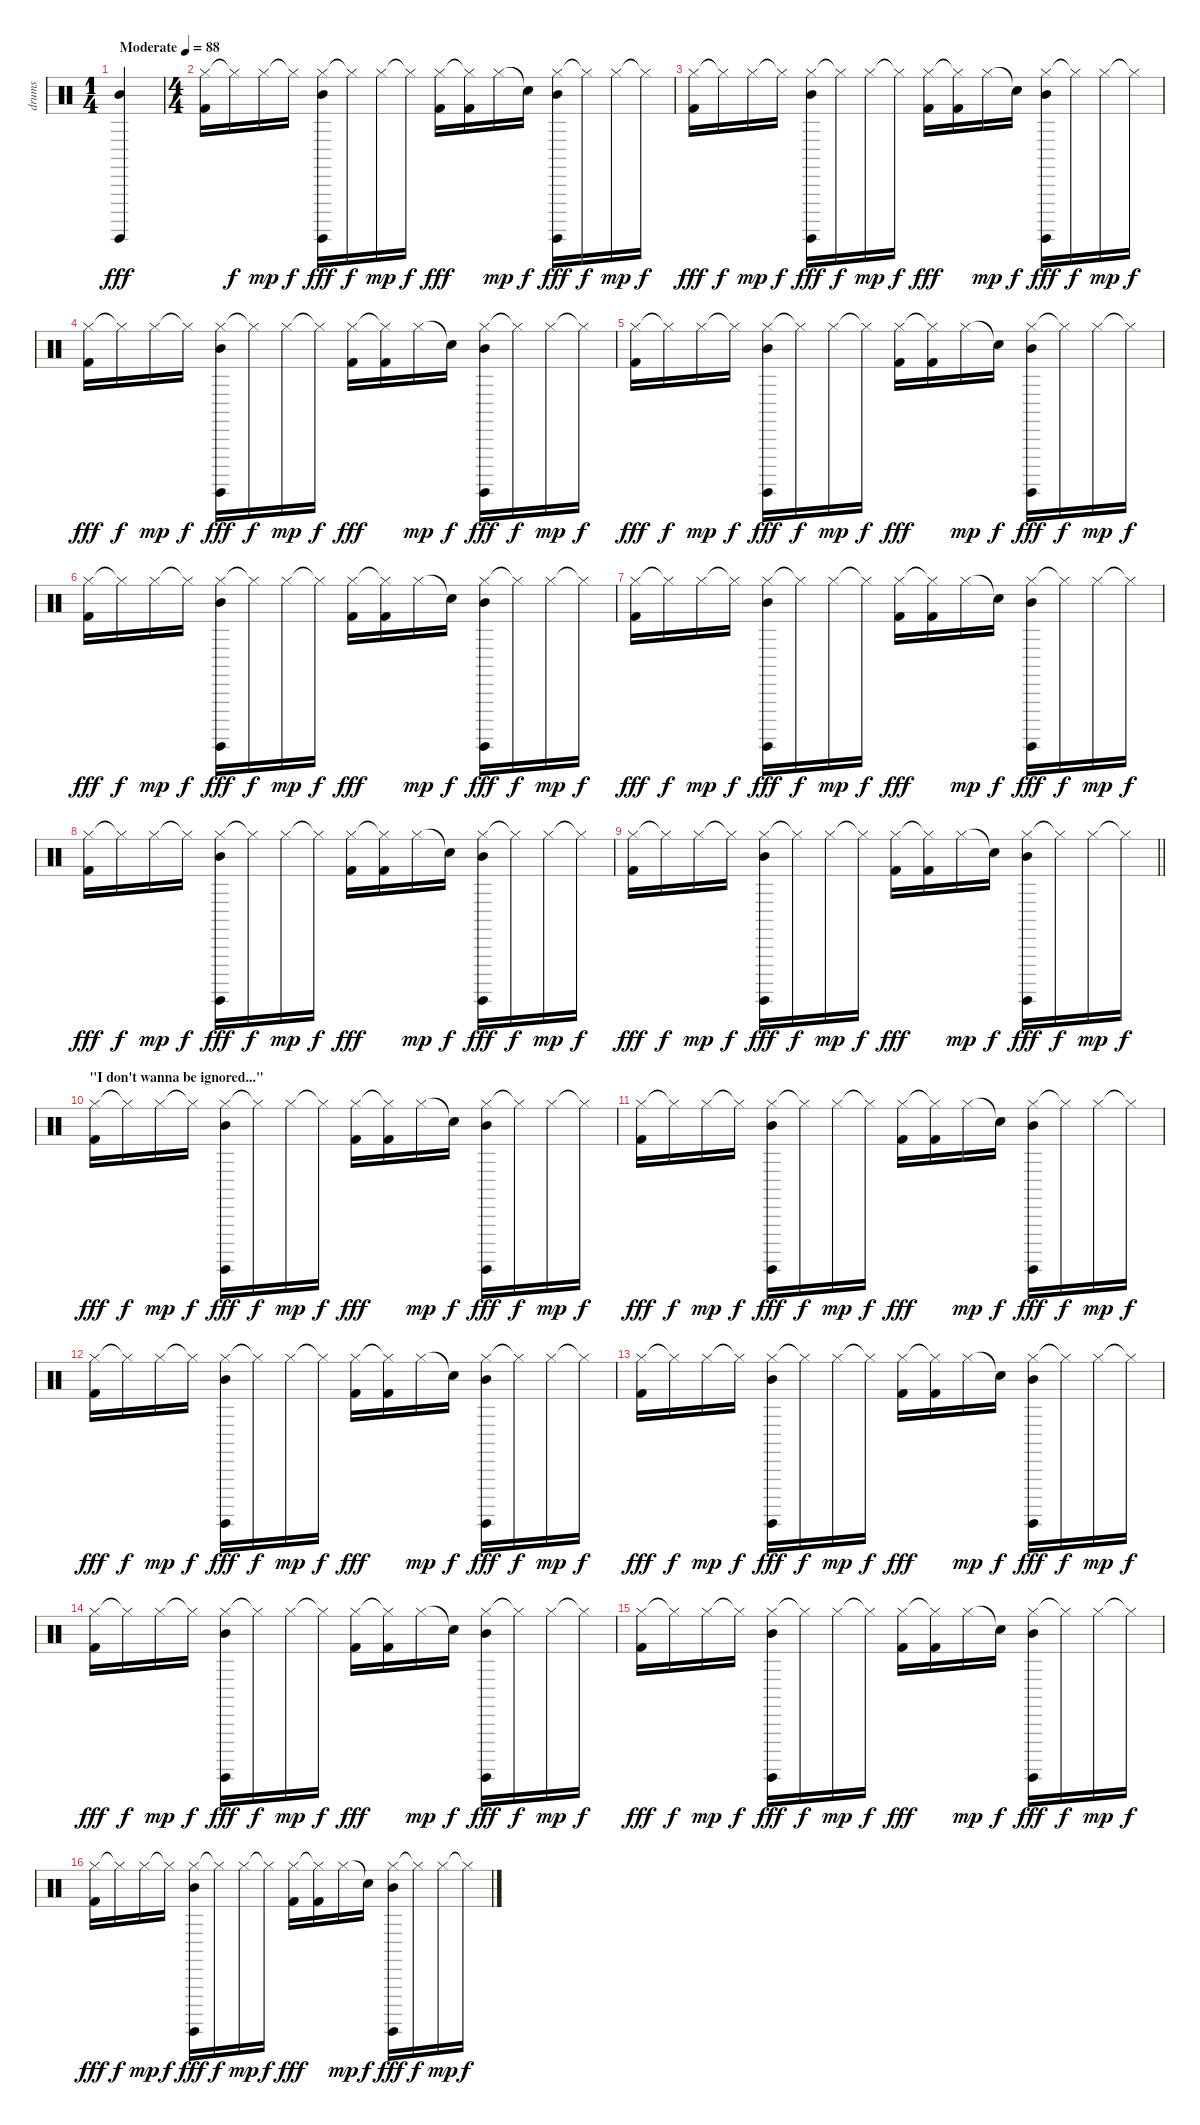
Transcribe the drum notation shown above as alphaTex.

\track ("drums" "drums") {instrument percussion}
\staff {score}
\articulation defaults
\ts (1 4)
\tempo (88 "Moderate")
\clef neutral
\ks c
("Mid Tom (hit)" "Surdo (hit)").4{dy fff} |
\ts (4 4)
("Hi-Hat (closed)" "Kick (hit) 2").16 "Hi-Hat (closed)"{t}.16{dy f} "Hi-Hat (closed)".16{dy mp} "Hi-Hat (closed)"{t}.16{dy f} ("Hi-Hat (closed)" "Mid Tom (hit)" "Surdo (hit)").16{dy fff} "Hi-Hat (closed)"{t}.16{dy f} "Hi-Hat (closed)".16{dy mp} "Hi-Hat (closed)"{t}.16{dy f} ("Hi-Hat (closed)" "Kick (hit) 2").16{dy fff} ("Hi-Hat (closed)"{t} "Kick (hit) 2").16 "Hi-Hat (closed)".16{dy mp} "Snare (hit)"{t}.16{dy f} ("Hi-Hat (closed)" "Mid Tom (hit)" "Surdo (hit)").16{dy fff} "Hi-Hat (closed)"{t}.16{dy f} "Hi-Hat (closed)".16{dy mp} "Hi-Hat (closed)"{t}.16{dy f} |
("Hi-Hat (closed)" "Kick (hit) 2").16{dy fff} "Hi-Hat (closed)"{t}.16{dy f} "Hi-Hat (closed)".16{dy mp} "Hi-Hat (closed)"{t}.16{dy f} ("Hi-Hat (closed)" "Mid Tom (hit)" "Surdo (hit)").16{dy fff} "Hi-Hat (closed)"{t}.16{dy f} "Hi-Hat (closed)".16{dy mp} "Hi-Hat (closed)"{t}.16{dy f} ("Hi-Hat (closed)" "Kick (hit) 2").16{dy fff} ("Hi-Hat (closed)"{t} "Kick (hit) 2").16 "Hi-Hat (closed)".16{dy mp} "Snare (hit)"{t}.16{dy f} ("Hi-Hat (closed)" "Mid Tom (hit)" "Surdo (hit)").16{dy fff} "Hi-Hat (closed)"{t}.16{dy f} "Hi-Hat (closed)".16{dy mp} "Hi-Hat (closed)"{t}.16{dy f} |
("Hi-Hat (closed)" "Kick (hit) 2").16{dy fff} "Hi-Hat (closed)"{t}.16{dy f} "Hi-Hat (closed)".16{dy mp} "Hi-Hat (closed)"{t}.16{dy f} ("Hi-Hat (closed)" "Mid Tom (hit)" "Surdo (hit)").16{dy fff} "Hi-Hat (closed)"{t}.16{dy f} "Hi-Hat (closed)".16{dy mp} "Hi-Hat (closed)"{t}.16{dy f} ("Hi-Hat (closed)" "Kick (hit) 2").16{dy fff} ("Hi-Hat (closed)"{t} "Kick (hit) 2").16 "Hi-Hat (closed)".16{dy mp} "Snare (hit)"{t}.16{dy f} ("Hi-Hat (closed)" "Mid Tom (hit)" "Surdo (hit)").16{dy fff} "Hi-Hat (closed)"{t}.16{dy f} "Hi-Hat (closed)".16{dy mp} "Hi-Hat (closed)"{t}.16{dy f} |
("Hi-Hat (closed)" "Kick (hit) 2").16{dy fff} "Hi-Hat (closed)"{t}.16{dy f} "Hi-Hat (closed)".16{dy mp} "Hi-Hat (closed)"{t}.16{dy f} ("Hi-Hat (closed)" "Mid Tom (hit)" "Surdo (hit)").16{dy fff} "Hi-Hat (closed)"{t}.16{dy f} "Hi-Hat (closed)".16{dy mp} "Hi-Hat (closed)"{t}.16{dy f} ("Hi-Hat (closed)" "Kick (hit) 2").16{dy fff} ("Hi-Hat (closed)"{t} "Kick (hit) 2").16 "Hi-Hat (closed)".16{dy mp} "Snare (hit)"{t}.16{dy f} ("Hi-Hat (closed)" "Mid Tom (hit)" "Surdo (hit)").16{dy fff} "Hi-Hat (closed)"{t}.16{dy f} "Hi-Hat (closed)".16{dy mp} "Hi-Hat (closed)"{t}.16{dy f} |
("Hi-Hat (closed)" "Kick (hit) 2").16{dy fff} "Hi-Hat (closed)"{t}.16{dy f} "Hi-Hat (closed)".16{dy mp} "Hi-Hat (closed)"{t}.16{dy f} ("Hi-Hat (closed)" "Mid Tom (hit)" "Surdo (hit)").16{dy fff} "Hi-Hat (closed)"{t}.16{dy f} "Hi-Hat (closed)".16{dy mp} "Hi-Hat (closed)"{t}.16{dy f} ("Hi-Hat (closed)" "Kick (hit) 2").16{dy fff} ("Hi-Hat (closed)"{t} "Kick (hit) 2").16 "Hi-Hat (closed)".16{dy mp} "Snare (hit)"{t}.16{dy f} ("Hi-Hat (closed)" "Mid Tom (hit)" "Surdo (hit)").16{dy fff} "Hi-Hat (closed)"{t}.16{dy f} "Hi-Hat (closed)".16{dy mp} "Hi-Hat (closed)"{t}.16{dy f} |
("Hi-Hat (closed)" "Kick (hit) 2").16{dy fff} "Hi-Hat (closed)"{t}.16{dy f} "Hi-Hat (closed)".16{dy mp} "Hi-Hat (closed)"{t}.16{dy f} ("Hi-Hat (closed)" "Mid Tom (hit)" "Surdo (hit)").16{dy fff} "Hi-Hat (closed)"{t}.16{dy f} "Hi-Hat (closed)".16{dy mp} "Hi-Hat (closed)"{t}.16{dy f} ("Hi-Hat (closed)" "Kick (hit) 2").16{dy fff} ("Hi-Hat (closed)"{t} "Kick (hit) 2").16 "Hi-Hat (closed)".16{dy mp} "Snare (hit)"{t}.16{dy f} ("Hi-Hat (closed)" "Mid Tom (hit)" "Surdo (hit)").16{dy fff} "Hi-Hat (closed)"{t}.16{dy f} "Hi-Hat (closed)".16{dy mp} "Hi-Hat (closed)"{t}.16{dy f} |
("Hi-Hat (closed)" "Kick (hit) 2").16{dy fff} "Hi-Hat (closed)"{t}.16{dy f} "Hi-Hat (closed)".16{dy mp} "Hi-Hat (closed)"{t}.16{dy f} ("Hi-Hat (closed)" "Mid Tom (hit)" "Surdo (hit)").16{dy fff} "Hi-Hat (closed)"{t}.16{dy f} "Hi-Hat (closed)".16{dy mp} "Hi-Hat (closed)"{t}.16{dy f} ("Hi-Hat (closed)" "Kick (hit) 2").16{dy fff} ("Hi-Hat (closed)"{t} "Kick (hit) 2").16 "Hi-Hat (closed)".16{dy mp} "Snare (hit)"{t}.16{dy f} ("Hi-Hat (closed)" "Mid Tom (hit)" "Surdo (hit)").16{dy fff} "Hi-Hat (closed)"{t}.16{dy f} "Hi-Hat (closed)".16{dy mp} "Hi-Hat (closed)"{t}.16{dy f} |
\barLineRight lightlight
("Hi-Hat (closed)" "Kick (hit) 2").16{dy fff} "Hi-Hat (closed)"{t}.16{dy f} "Hi-Hat (closed)".16{dy mp} "Hi-Hat (closed)"{t}.16{dy f} ("Hi-Hat (closed)" "Mid Tom (hit)" "Surdo (hit)").16{dy fff} "Hi-Hat (closed)"{t}.16{dy f} "Hi-Hat (closed)".16{dy mp} "Hi-Hat (closed)"{t}.16{dy f} ("Hi-Hat (closed)" "Kick (hit) 2").16{dy fff} ("Hi-Hat (closed)"{t} "Kick (hit) 2").16 "Hi-Hat (closed)".16{dy mp} "Snare (hit)"{t}.16{dy f} ("Hi-Hat (closed)" "Mid Tom (hit)" "Surdo (hit)").16{dy fff} "Hi-Hat (closed)"{t}.16{dy f} "Hi-Hat (closed)".16{dy mp} "Hi-Hat (closed)"{t}.16{dy f} |
\section ("" "\"I don't wanna be ignored...\"")
("Hi-Hat (closed)" "Kick (hit) 2").16{dy fff} "Hi-Hat (closed)"{t}.16{dy f} "Hi-Hat (closed)".16{dy mp} "Hi-Hat (closed)"{t}.16{dy f} ("Hi-Hat (closed)" "Mid Tom (hit)" "Surdo (hit)").16{dy fff} "Hi-Hat (closed)"{t}.16{dy f} "Hi-Hat (closed)".16{dy mp} "Hi-Hat (closed)"{t}.16{dy f} ("Hi-Hat (closed)" "Kick (hit) 2").16{dy fff} ("Hi-Hat (closed)"{t} "Kick (hit) 2").16 "Hi-Hat (closed)".16{dy mp} "Snare (hit)"{t}.16{dy f} ("Hi-Hat (closed)" "Mid Tom (hit)" "Surdo (hit)").16{dy fff} "Hi-Hat (closed)"{t}.16{dy f} "Hi-Hat (closed)".16{dy mp} "Hi-Hat (closed)"{t}.16{dy f} |
("Hi-Hat (closed)" "Kick (hit) 2").16{dy fff} "Hi-Hat (closed)"{t}.16{dy f} "Hi-Hat (closed)".16{dy mp} "Hi-Hat (closed)"{t}.16{dy f} ("Hi-Hat (closed)" "Mid Tom (hit)" "Surdo (hit)").16{dy fff} "Hi-Hat (closed)"{t}.16{dy f} "Hi-Hat (closed)".16{dy mp} "Hi-Hat (closed)"{t}.16{dy f} ("Hi-Hat (closed)" "Kick (hit) 2").16{dy fff} ("Hi-Hat (closed)"{t} "Kick (hit) 2").16 "Hi-Hat (closed)".16{dy mp} "Snare (hit)"{t}.16{dy f} ("Hi-Hat (closed)" "Mid Tom (hit)" "Surdo (hit)").16{dy fff} "Hi-Hat (closed)"{t}.16{dy f} "Hi-Hat (closed)".16{dy mp} "Hi-Hat (closed)"{t}.16{dy f} |
("Hi-Hat (closed)" "Kick (hit) 2").16{dy fff} "Hi-Hat (closed)"{t}.16{dy f} "Hi-Hat (closed)".16{dy mp} "Hi-Hat (closed)"{t}.16{dy f} ("Hi-Hat (closed)" "Mid Tom (hit)" "Surdo (hit)").16{dy fff} "Hi-Hat (closed)"{t}.16{dy f} "Hi-Hat (closed)".16{dy mp} "Hi-Hat (closed)"{t}.16{dy f} ("Hi-Hat (closed)" "Kick (hit) 2").16{dy fff} ("Hi-Hat (closed)"{t} "Kick (hit) 2").16 "Hi-Hat (closed)".16{dy mp} "Snare (hit)"{t}.16{dy f} ("Hi-Hat (closed)" "Mid Tom (hit)" "Surdo (hit)").16{dy fff} "Hi-Hat (closed)"{t}.16{dy f} "Hi-Hat (closed)".16{dy mp} "Hi-Hat (closed)"{t}.16{dy f} |
("Hi-Hat (closed)" "Kick (hit) 2").16{dy fff} "Hi-Hat (closed)"{t}.16{dy f} "Hi-Hat (closed)".16{dy mp} "Hi-Hat (closed)"{t}.16{dy f} ("Hi-Hat (closed)" "Mid Tom (hit)" "Surdo (hit)").16{dy fff} "Hi-Hat (closed)"{t}.16{dy f} "Hi-Hat (closed)".16{dy mp} "Hi-Hat (closed)"{t}.16{dy f} ("Hi-Hat (closed)" "Kick (hit) 2").16{dy fff} ("Hi-Hat (closed)"{t} "Kick (hit) 2").16 "Hi-Hat (closed)".16{dy mp} "Snare (hit)"{t}.16{dy f} ("Hi-Hat (closed)" "Mid Tom (hit)" "Surdo (hit)").16{dy fff} "Hi-Hat (closed)"{t}.16{dy f} "Hi-Hat (closed)".16{dy mp} "Hi-Hat (closed)"{t}.16{dy f} |
("Hi-Hat (closed)" "Kick (hit) 2").16{dy fff} "Hi-Hat (closed)"{t}.16{dy f} "Hi-Hat (closed)".16{dy mp} "Hi-Hat (closed)"{t}.16{dy f} ("Hi-Hat (closed)" "Mid Tom (hit)" "Surdo (hit)").16{dy fff} "Hi-Hat (closed)"{t}.16{dy f} "Hi-Hat (closed)".16{dy mp} "Hi-Hat (closed)"{t}.16{dy f} ("Hi-Hat (closed)" "Kick (hit) 2").16{dy fff} ("Hi-Hat (closed)"{t} "Kick (hit) 2").16 "Hi-Hat (closed)".16{dy mp} "Snare (hit)"{t}.16{dy f} ("Hi-Hat (closed)" "Mid Tom (hit)" "Surdo (hit)").16{dy fff} "Hi-Hat (closed)"{t}.16{dy f} "Hi-Hat (closed)".16{dy mp} "Hi-Hat (closed)"{t}.16{dy f} |
("Hi-Hat (closed)" "Kick (hit) 2").16{dy fff} "Hi-Hat (closed)"{t}.16{dy f} "Hi-Hat (closed)".16{dy mp} "Hi-Hat (closed)"{t}.16{dy f} ("Hi-Hat (closed)" "Mid Tom (hit)" "Surdo (hit)").16{dy fff} "Hi-Hat (closed)"{t}.16{dy f} "Hi-Hat (closed)".16{dy mp} "Hi-Hat (closed)"{t}.16{dy f} ("Hi-Hat (closed)" "Kick (hit) 2").16{dy fff} ("Hi-Hat (closed)"{t} "Kick (hit) 2").16 "Hi-Hat (closed)".16{dy mp} "Snare (hit)"{t}.16{dy f} ("Hi-Hat (closed)" "Mid Tom (hit)" "Surdo (hit)").16{dy fff} "Hi-Hat (closed)"{t}.16{dy f} "Hi-Hat (closed)".16{dy mp} "Hi-Hat (closed)"{t}.16{dy f} |
("Hi-Hat (closed)" "Kick (hit) 2").16{dy fff} "Hi-Hat (closed)"{t}.16{dy f} "Hi-Hat (closed)".16{dy mp} "Hi-Hat (closed)"{t}.16{dy f} ("Hi-Hat (closed)" "Mid Tom (hit)" "Surdo (hit)").16{dy fff} "Hi-Hat (closed)"{t}.16{dy f} "Hi-Hat (closed)".16{dy mp} "Hi-Hat (closed)"{t}.16{dy f} ("Hi-Hat (closed)" "Kick (hit) 2").16{dy fff} ("Hi-Hat (closed)"{t} "Kick (hit) 2").16 "Hi-Hat (closed)".16{dy mp} "Snare (hit)"{t}.16{dy f} ("Hi-Hat (closed)" "Mid Tom (hit)" "Surdo (hit)").16{dy fff} "Hi-Hat (closed)"{t}.16{dy f} "Hi-Hat (closed)".16{dy mp} "Hi-Hat (closed)"{t}.16{dy f}
